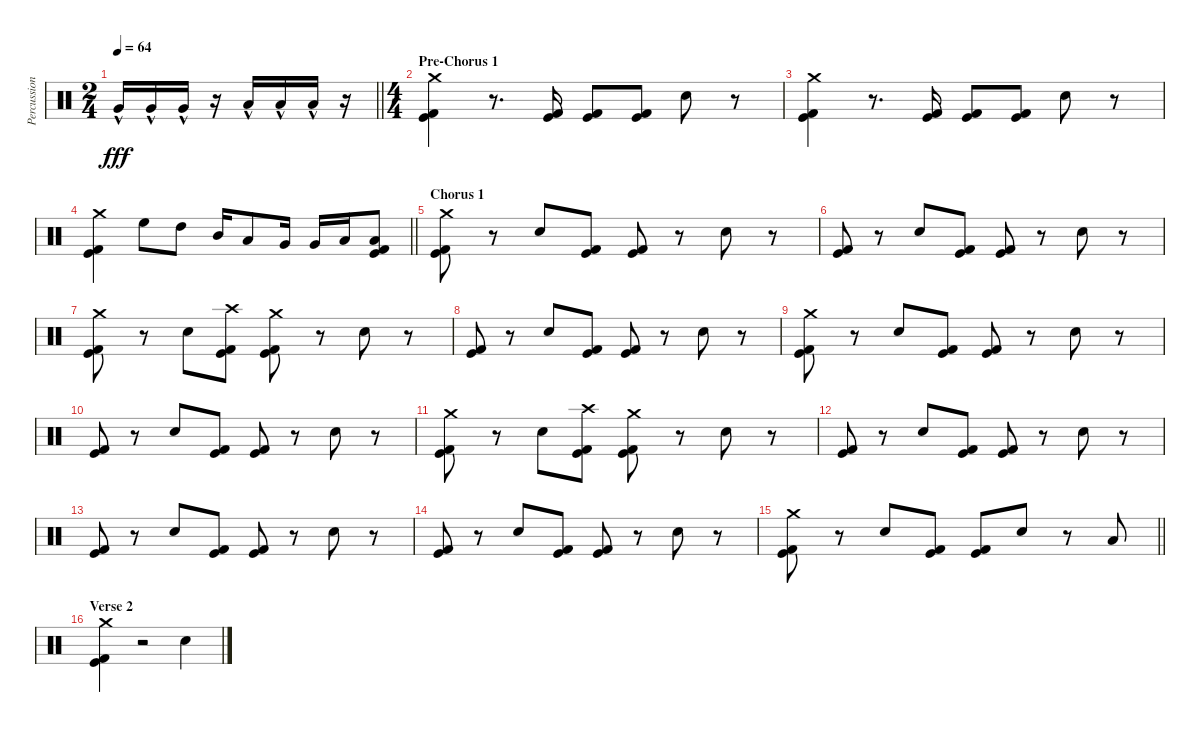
\track ("Percussion" "Percussion") {instrument percussion}
\staff {score}
\articulation defaults
\ts (2 4)
\tempo 64
\clef neutral
\barLineRight lightlight
\ks c "Very Low Tom (hit)"{hac}.16{dy fff} "Very Low Tom (hit)"{hac}.16 "Very Low Tom (hit)"{hac}.16
r.16 "Low Floor Tom (hit)"{hac}.16 "Low Floor Tom (hit)"{hac}.16 "Low Floor Tom (hit)"{hac}.16 r.16 |
\ts (4 4)
\section ("" "Pre-Chorus 1")
("Crash medium (hit)" "Kick (hit) 2" "Kick (hit)").4 r.8{d} ("Kick (hit) 2" "Kick (hit)").16 ("Kick (hit) 2" "Kick (hit)").8 ("Kick (hit) 2" "Kick (hit)").8 "Snare (hit) 2".8 r.8 |
("Crash medium (hit)" "Kick (hit) 2" "Kick (hit)").4 r.8{d} ("Kick (hit) 2" "Kick (hit)").16 ("Kick (hit) 2" "Kick (hit)").8 ("Kick (hit) 2" "Kick (hit)").8 "Snare (hit) 2".8 r.8 |
\barLineRight lightlight
("Crash medium (hit)" "Kick (hit) 2" "Kick (hit)").4 "High Floor Tom (hit)".8 "High Tom (hit)".8 "Mid Tom (hit)".16 "Low Tom (hit)".8 "Very Low Tom (hit)".16 "Very Low Tom (hit)".16 "Low Floor Tom (hit)".16 ("Low Floor Tom (hit)" "Kick (hit) 2" "Kick (hit)").8 |
\section ("" "Chorus 1")
("Crash medium (hit)" "Kick (hit) 2" "Kick (hit)").8 r.8 "Snare (hit) 2".8 ("Kick (hit) 2" "Kick (hit)").8 ("Kick (hit) 2" "Kick (hit)").8 r.8 "Snare (hit) 2".8 r.8 |
("Kick (hit) 2" "Kick (hit)").8 r.8 "Snare (hit) 2".8 ("Kick (hit) 2" "Kick (hit)").8 ("Kick (hit) 2" "Kick (hit)").8 r.8 "Snare (hit) 2".8 r.8 |
("Crash medium (hit)" "Kick (hit) 2" "Kick (hit)").8 r.8 "Snare (hit) 2".8 ("Crash high (hit)" "Kick (hit) 2" "Kick (hit)").8 ("Crash medium (hit)" "Kick (hit) 2" "Kick (hit)").8 r.8 "Snare (hit) 2".8 r.8 |
("Kick (hit) 2" "Kick (hit)").8 r.8 "Snare (hit) 2".8 ("Kick (hit) 2" "Kick (hit)").8 ("Kick (hit) 2" "Kick (hit)").8 r.8 "Snare (hit) 2".8 r.8 |
("Crash medium (hit)" "Kick (hit) 2" "Kick (hit)").8 r.8 "Snare (hit) 2".8 ("Kick (hit) 2" "Kick (hit)").8 ("Kick (hit) 2" "Kick (hit)").8 r.8 "Snare (hit) 2".8 r.8 |
("Kick (hit) 2" "Kick (hit)").8 r.8 "Snare (hit) 2".8 ("Kick (hit) 2" "Kick (hit)").8 ("Kick (hit) 2" "Kick (hit)").8 r.8 "Snare (hit) 2".8 r.8 |
("Crash medium (hit)" "Kick (hit) 2" "Kick (hit)").8 r.8 "Snare (hit) 2".8 ("Crash high (hit)" "Kick (hit) 2" "Kick (hit)").8 ("Crash medium (hit)" "Kick (hit) 2" "Kick (hit)").8 r.8 "Snare (hit) 2".8 r.8 |
("Kick (hit) 2" "Kick (hit)").8 r.8 "Snare (hit) 2".8 ("Kick (hit) 2" "Kick (hit)").8 ("Kick (hit) 2" "Kick (hit)").8 r.8 "Snare (hit) 2".8 r.8 |
("Kick (hit) 2" "Kick (hit)").8 r.8 "Snare (hit) 2".8 ("Kick (hit) 2" "Kick (hit)").8 ("Kick (hit) 2" "Kick (hit)").8 r.8 "Snare (hit) 2".8 r.8 |
("Kick (hit) 2" "Kick (hit)").8 r.8 "Snare (hit) 2".8 ("Kick (hit) 2" "Kick (hit)").8 ("Kick (hit) 2" "Kick (hit)").8 r.8 "Snare (hit) 2".8 r.8 |
\barLineRight lightlight
("Crash medium (hit)" "Kick (hit) 2" "Kick (hit)").8 r.8 "Snare (hit) 2".8 ("Kick (hit) 2" "Kick (hit)").8 ("Kick (hit) 2" "Kick (hit)").8 "Snare (hit) 2".8 r.8 "Low Tom (hit)".8 |
\section ("" "Verse 2")
("Crash medium (hit)" "Kick (hit) 2" "Kick (hit)").4 r.2 "Snare (hit) 2".4
